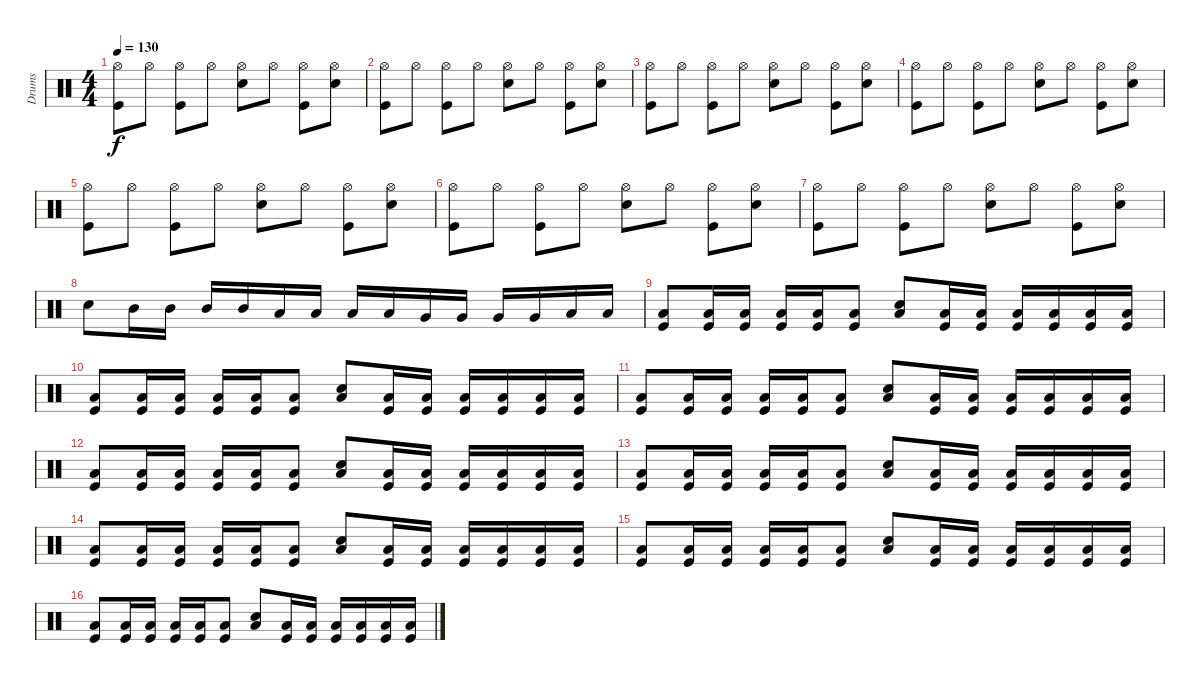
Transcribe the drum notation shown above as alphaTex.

\track ("Drums" "Drums") {instrument percussion}
\staff {score}
\articulation defaults
\ts (4 4)
\tempo 130
\clef neutral
\ks c
("Hi-Hat (open)" "Kick (hit)").8{dy f} "Hi-Hat (open)".8 ("Hi-Hat (open)" "Kick (hit)").8 "Hi-Hat (open)".8 ("Hi-Hat (open)" "Snare (hit) 2").8 "Hi-Hat (open)".8 ("Hi-Hat (open)" "Kick (hit)").8 ("Hi-Hat (open)" "Snare (hit) 2").8 |
("Hi-Hat (open)" "Kick (hit)").8 "Hi-Hat (open)".8 ("Hi-Hat (open)" "Kick (hit)").8 "Hi-Hat (open)".8 ("Hi-Hat (open)" "Snare (hit) 2").8 "Hi-Hat (open)".8 ("Hi-Hat (open)" "Kick (hit)").8 ("Hi-Hat (open)" "Snare (hit) 2").8 |
("Hi-Hat (open)" "Kick (hit)").8 "Hi-Hat (open)".8 ("Hi-Hat (open)" "Kick (hit)").8 "Hi-Hat (open)".8 ("Hi-Hat (open)" "Snare (hit) 2").8 "Hi-Hat (open)".8 ("Hi-Hat (open)" "Kick (hit)").8 ("Hi-Hat (open)" "Snare (hit) 2").8 |
("Hi-Hat (open)" "Kick (hit)").8 "Hi-Hat (open)".8 ("Hi-Hat (open)" "Kick (hit)").8 "Hi-Hat (open)".8 ("Hi-Hat (open)" "Snare (hit) 2").8 "Hi-Hat (open)".8 ("Hi-Hat (open)" "Kick (hit)").8 ("Hi-Hat (open)" "Snare (hit) 2").8 |
("Hi-Hat (open)" "Kick (hit)").8 "Hi-Hat (open)".8 ("Hi-Hat (open)" "Kick (hit)").8 "Hi-Hat (open)".8 ("Hi-Hat (open)" "Snare (hit) 2").8 "Hi-Hat (open)".8 ("Hi-Hat (open)" "Kick (hit)").8 ("Hi-Hat (open)" "Snare (hit) 2").8 |
("Hi-Hat (open)" "Kick (hit)").8 "Hi-Hat (open)".8 ("Hi-Hat (open)" "Kick (hit)").8 "Hi-Hat (open)".8 ("Hi-Hat (open)" "Snare (hit) 2").8 "Hi-Hat (open)".8 ("Hi-Hat (open)" "Kick (hit)").8 ("Hi-Hat (open)" "Snare (hit) 2").8 |
("Hi-Hat (open)" "Kick (hit)").8 "Hi-Hat (open)".8 ("Hi-Hat (open)" "Kick (hit)").8 "Hi-Hat (open)".8 ("Hi-Hat (open)" "Snare (hit) 2").8 "Hi-Hat (open)".8 ("Hi-Hat (open)" "Kick (hit)").8 ("Hi-Hat (open)" "Snare (hit) 2").8 |
"Snare (hit) 2".8 "Mid Tom (hit)".16 "Mid Tom (hit)".16 "Mid Tom (hit)".16 "Mid Tom (hit)".16 "Low Tom (hit)".16 "Low Tom (hit)".16 "Low Tom (hit)".16 "Low Tom (hit)".16 "Very Low Tom (hit)".16 "Very Low Tom (hit)".16 "Very Low Tom (hit)".16 "Very Low Tom (hit)".16 "Low Floor Tom (hit)".16 "Low Floor Tom (hit)".16 |
("Low Floor Tom (hit)" "Kick (hit)").8 ("Low Floor Tom (hit)" "Kick (hit)").16 ("Low Floor Tom (hit)" "Kick (hit)").16 ("Low Floor Tom (hit)" "Kick (hit)").16 ("Low Floor Tom (hit)" "Kick (hit)").16 ("Low Floor Tom (hit)" "Kick (hit)").8 ("Low Floor Tom (hit)" "Snare (hit) 2").8 ("Low Floor Tom (hit)" "Kick (hit)").16 ("Low Floor Tom (hit)" "Kick (hit)").16 ("Low Floor Tom (hit)" "Kick (hit)").16 ("Low Floor Tom (hit)" "Kick (hit)").16 ("Low Floor Tom (hit)" "Kick (hit)").16 ("Low Floor Tom (hit)" "Kick (hit)").16 |
("Low Floor Tom (hit)" "Kick (hit)").8 ("Low Floor Tom (hit)" "Kick (hit)").16 ("Low Floor Tom (hit)" "Kick (hit)").16 ("Low Floor Tom (hit)" "Kick (hit)").16 ("Low Floor Tom (hit)" "Kick (hit)").16 ("Low Floor Tom (hit)" "Kick (hit)").8 ("Low Floor Tom (hit)" "Snare (hit) 2").8 ("Low Floor Tom (hit)" "Kick (hit)").16 ("Low Floor Tom (hit)" "Kick (hit)").16 ("Low Floor Tom (hit)" "Kick (hit)").16 ("Low Floor Tom (hit)" "Kick (hit)").16 ("Low Floor Tom (hit)" "Kick (hit)").16 ("Low Floor Tom (hit)" "Kick (hit)").16 |
("Low Floor Tom (hit)" "Kick (hit)").8 ("Low Floor Tom (hit)" "Kick (hit)").16 ("Low Floor Tom (hit)" "Kick (hit)").16 ("Low Floor Tom (hit)" "Kick (hit)").16 ("Low Floor Tom (hit)" "Kick (hit)").16 ("Low Floor Tom (hit)" "Kick (hit)").8 ("Low Floor Tom (hit)" "Snare (hit) 2").8 ("Low Floor Tom (hit)" "Kick (hit)").16 ("Low Floor Tom (hit)" "Kick (hit)").16 ("Low Floor Tom (hit)" "Kick (hit)").16 ("Low Floor Tom (hit)" "Kick (hit)").16 ("Low Floor Tom (hit)" "Kick (hit)").16 ("Low Floor Tom (hit)" "Kick (hit)").16 |
("Low Floor Tom (hit)" "Kick (hit)").8 ("Low Floor Tom (hit)" "Kick (hit)").16 ("Low Floor Tom (hit)" "Kick (hit)").16 ("Low Floor Tom (hit)" "Kick (hit)").16 ("Low Floor Tom (hit)" "Kick (hit)").16 ("Low Floor Tom (hit)" "Kick (hit)").8 ("Low Floor Tom (hit)" "Snare (hit) 2").8 ("Low Floor Tom (hit)" "Kick (hit)").16 ("Low Floor Tom (hit)" "Kick (hit)").16 ("Low Floor Tom (hit)" "Kick (hit)").16 ("Low Floor Tom (hit)" "Kick (hit)").16 ("Low Floor Tom (hit)" "Kick (hit)").16 ("Low Floor Tom (hit)" "Kick (hit)").16 |
("Low Floor Tom (hit)" "Kick (hit)").8 ("Low Floor Tom (hit)" "Kick (hit)").16 ("Low Floor Tom (hit)" "Kick (hit)").16 ("Low Floor Tom (hit)" "Kick (hit)").16 ("Low Floor Tom (hit)" "Kick (hit)").16 ("Low Floor Tom (hit)" "Kick (hit)").8 ("Low Floor Tom (hit)" "Snare (hit) 2").8 ("Low Floor Tom (hit)" "Kick (hit)").16 ("Low Floor Tom (hit)" "Kick (hit)").16 ("Low Floor Tom (hit)" "Kick (hit)").16 ("Low Floor Tom (hit)" "Kick (hit)").16 ("Low Floor Tom (hit)" "Kick (hit)").16 ("Low Floor Tom (hit)" "Kick (hit)").16 |
("Low Floor Tom (hit)" "Kick (hit)").8 ("Low Floor Tom (hit)" "Kick (hit)").16 ("Low Floor Tom (hit)" "Kick (hit)").16 ("Low Floor Tom (hit)" "Kick (hit)").16 ("Low Floor Tom (hit)" "Kick (hit)").16 ("Low Floor Tom (hit)" "Kick (hit)").8 ("Low Floor Tom (hit)" "Snare (hit) 2").8 ("Low Floor Tom (hit)" "Kick (hit)").16 ("Low Floor Tom (hit)" "Kick (hit)").16 ("Low Floor Tom (hit)" "Kick (hit)").16 ("Low Floor Tom (hit)" "Kick (hit)").16 ("Low Floor Tom (hit)" "Kick (hit)").16 ("Low Floor Tom (hit)" "Kick (hit)").16 |
("Low Floor Tom (hit)" "Kick (hit)").8 ("Low Floor Tom (hit)" "Kick (hit)").16 ("Low Floor Tom (hit)" "Kick (hit)").16 ("Low Floor Tom (hit)" "Kick (hit)").16 ("Low Floor Tom (hit)" "Kick (hit)").16 ("Low Floor Tom (hit)" "Kick (hit)").8 ("Low Floor Tom (hit)" "Snare (hit) 2").8 ("Low Floor Tom (hit)" "Kick (hit)").16 ("Low Floor Tom (hit)" "Kick (hit)").16 ("Low Floor Tom (hit)" "Kick (hit)").16 ("Low Floor Tom (hit)" "Kick (hit)").16 ("Low Floor Tom (hit)" "Kick (hit)").16 ("Low Floor Tom (hit)" "Kick (hit)").16 |
("Low Floor Tom (hit)" "Kick (hit)").8 ("Low Floor Tom (hit)" "Kick (hit)").16 ("Low Floor Tom (hit)" "Kick (hit)").16 ("Low Floor Tom (hit)" "Kick (hit)").16 ("Low Floor Tom (hit)" "Kick (hit)").16 ("Low Floor Tom (hit)" "Kick (hit)").8 ("Low Floor Tom (hit)" "Snare (hit) 2").8 ("Low Floor Tom (hit)" "Kick (hit)").16 ("Low Floor Tom (hit)" "Kick (hit)").16 ("Low Floor Tom (hit)" "Kick (hit)").16 ("Low Floor Tom (hit)" "Kick (hit)").16 ("Low Floor Tom (hit)" "Kick (hit)").16 ("Low Floor Tom (hit)" "Kick (hit)").16
